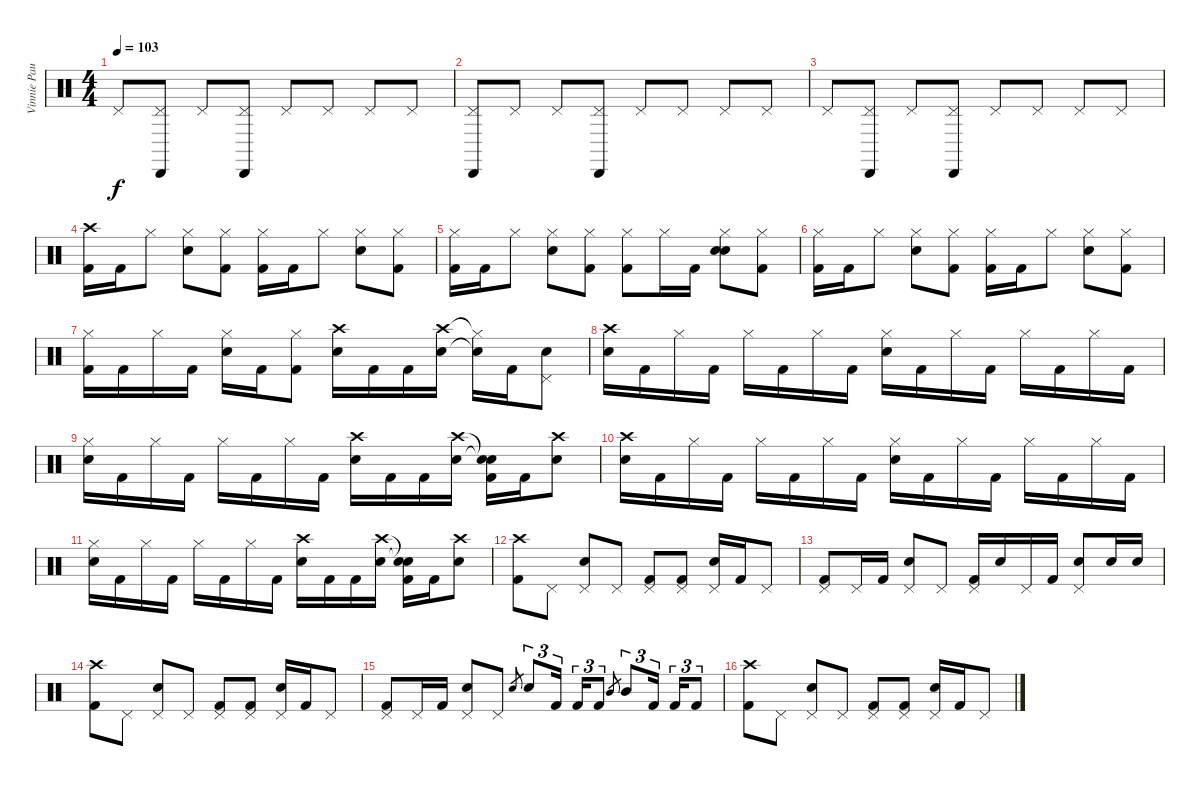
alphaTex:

\track ("Vinnie Paul" "Vinnie Pau") {instrument percussion}
\staff {score}
\articulation defaults
\ts (4 4)
\tempo 103
\clef neutral
\ks c "Pedal Hi-Hat (hit)".8{dy f}
("Pedal Hi-Hat (hit)" "Cabasa (hit)").8 "Pedal Hi-Hat (hit)".8 ("Pedal Hi-Hat (hit)" "Cabasa (hit)").8 "Pedal Hi-Hat (hit)".8 "Pedal Hi-Hat (hit)".8 "Pedal Hi-Hat (hit)".8 "Pedal Hi-Hat (hit)".8 |
("Pedal Hi-Hat (hit)" "Cabasa (hit)").8 "Pedal Hi-Hat (hit)".8 "Pedal Hi-Hat (hit)".8 ("Pedal Hi-Hat (hit)" "Cabasa (hit)").8 "Pedal Hi-Hat (hit)".8 "Pedal Hi-Hat (hit)".8 "Pedal Hi-Hat (hit)".8 "Pedal Hi-Hat (hit)".8 |
"Pedal Hi-Hat (hit)".8 ("Pedal Hi-Hat (hit)" "Cabasa (hit)").8 "Pedal Hi-Hat (hit)".8 ("Pedal Hi-Hat (hit)" "Cabasa (hit)").8 "Pedal Hi-Hat (hit)".8 "Pedal Hi-Hat (hit)".8 "Pedal Hi-Hat (hit)".8 "Pedal Hi-Hat (hit)".8 |
("Crash high (hit)" "Kick (hit) 2").16 "Kick (hit) 2".16 "Hi-Hat (closed)".8 ("Hi-Hat (closed)" "Electric Snare (hit)").8 ("Hi-Hat (closed)" "Kick (hit) 2").8 ("Hi-Hat (closed)" "Kick (hit) 2").16 "Kick (hit) 2".16 "Hi-Hat (closed)".8 ("Hi-Hat (closed)" "Electric Snare (hit)").8 ("Hi-Hat (closed)" "Kick (hit) 2").8 |
("Hi-Hat (closed)" "Kick (hit) 2").16 "Kick (hit) 2".16 "Hi-Hat (closed)".8 ("Hi-Hat (closed)" "Electric Snare (hit)").8 ("Hi-Hat (closed)" "Kick (hit) 2").8 ("Hi-Hat (closed)" "Kick (hit) 2").8 "Hi-Hat (closed)".16 "Kick (hit) 2".16 ("Hi-Hat (closed)" "Electric Snare (hit)" "Snare (hit)").8 ("Hi-Hat (closed)" "Kick (hit) 2").8 |
("Hi-Hat (closed)" "Kick (hit) 2").16 "Kick (hit) 2".16 "Hi-Hat (closed)".8 ("Hi-Hat (closed)" "Electric Snare (hit)").8 ("Hi-Hat (closed)" "Kick (hit) 2").8 ("Hi-Hat (closed)" "Kick (hit) 2").16 "Kick (hit) 2".16 "Hi-Hat (closed)".8 ("Hi-Hat (closed)" "Electric Snare (hit)").8 ("Hi-Hat (closed)" "Kick (hit) 2").8 |
("Hi-Hat (closed)" "Kick (hit) 2").16 "Kick (hit) 2".16 "Hi-Hat (closed)".16 "Kick (hit) 2".16 ("Hi-Hat (closed)" "Electric Snare (hit)").16 "Kick (hit) 2".16 ("Hi-Hat (closed)" "Kick (hit) 2").8 ("Crash high (hit)" "Electric Snare (hit)").16 "Kick (hit) 2".16 "Kick (hit) 2".16 ("Crash high (hit)" "Electric Snare (hit)").16 ("Hi-Hat (closed)"{t} "Snare (hit)"{t}).16 "Kick (hit) 2".16 ("Pedal Hi-Hat (hit)" "Electric Snare (hit)").8 |
("Crash high (hit)" "Electric Snare (hit)").16 "Kick (hit) 2".16 "Hi-Hat (closed)".16 "Kick (hit) 2".16 "Hi-Hat (closed)".16 "Kick (hit) 2".16 "Hi-Hat (closed)".16 "Kick (hit) 2".16 ("Hi-Hat (closed)" "Electric Snare (hit)").16 "Kick (hit) 2".16 "Hi-Hat (closed)".16 "Kick (hit) 2".16 "Hi-Hat (closed)".16 "Kick (hit) 2".16 "Hi-Hat (closed)".16 "Kick (hit) 2".16 |
("Hi-Hat (closed)" "Electric Snare (hit)").16 "Kick (hit) 2".16 "Hi-Hat (closed)".16 "Kick (hit) 2".16 "Hi-Hat (closed)".16 "Kick (hit) 2".16 "Hi-Hat (closed)".16 "Kick (hit) 2".16 ("Crash high (hit)" "Electric Snare (hit)").16 "Kick (hit) 2".16 "Kick (hit) 2".16 ("Crash high (hit)" "Electric Snare (hit)").16 ("Snare (hit)"{t} "Snare (hit)"{t} "Kick (hit) 2").16 "Kick (hit) 2".16 ("Crash high (hit)" "Electric Snare (hit)").8 |
("Crash high (hit)" "Electric Snare (hit)").16 "Kick (hit) 2".16 "Hi-Hat (closed)".16 "Kick (hit) 2".16 "Hi-Hat (closed)".16 "Kick (hit) 2".16 "Hi-Hat (closed)".16 "Kick (hit) 2".16 ("Hi-Hat (closed)" "Electric Snare (hit)").16 "Kick (hit) 2".16 "Hi-Hat (closed)".16 "Kick (hit) 2".16 "Hi-Hat (closed)".16 "Kick (hit) 2".16 "Hi-Hat (closed)".16 "Kick (hit) 2".16 |
("Hi-Hat (closed)" "Electric Snare (hit)").16 "Kick (hit) 2".16 "Hi-Hat (closed)".16 "Kick (hit) 2".16 "Hi-Hat (closed)".16 "Kick (hit) 2".16 "Hi-Hat (closed)".16 "Kick (hit) 2".16 ("Crash high (hit)" "Electric Snare (hit)").16 "Kick (hit) 2".16 "Kick (hit) 2".16 ("Crash high (hit)" "Electric Snare (hit)").16 ("Snare (hit)"{t} "Snare (hit)"{t} "Kick (hit) 2").16 "Kick (hit) 2".16 ("Crash high (hit)" "Electric Snare (hit)").8 |
("Crash high (hit)" "Kick (hit) 2").8 "Pedal Hi-Hat (hit)".8 ("Pedal Hi-Hat (hit)" "Electric Snare (hit)").8 "Pedal Hi-Hat (hit)".8 ("Pedal Hi-Hat (hit)" "Kick (hit) 2").8 ("Pedal Hi-Hat (hit)" "Kick (hit) 2").8 ("Pedal Hi-Hat (hit)" "Electric Snare (hit)").16 "Kick (hit) 2".16 "Pedal Hi-Hat (hit)".8 |
("Pedal Hi-Hat (hit)" "Kick (hit) 2").8 "Pedal Hi-Hat (hit)".16 "Kick (hit) 2".16 ("Pedal Hi-Hat (hit)" "Electric Snare (hit)").8 "Pedal Hi-Hat (hit)".8 ("Pedal Hi-Hat (hit)" "Kick (hit) 2").16 "Electric Snare (hit)".16 "Pedal Hi-Hat (hit)".16 "Kick (hit) 2".16 ("Pedal Hi-Hat (hit)" "Electric Snare (hit)").8 "Electric Snare (hit)".16 "Electric Snare (hit)".16 |
("Crash high (hit)" "Kick (hit) 2").8 "Pedal Hi-Hat (hit)".8 ("Pedal Hi-Hat (hit)" "Electric Snare (hit)").8 "Pedal Hi-Hat (hit)".8 ("Pedal Hi-Hat (hit)" "Kick (hit) 2").8 ("Pedal Hi-Hat (hit)" "Kick (hit) 2").8 ("Pedal Hi-Hat (hit)" "Electric Snare (hit)").16 "Kick (hit) 2".16 "Pedal Hi-Hat (hit)".8 |
("Pedal Hi-Hat (hit)" "Kick (hit) 2").8 "Pedal Hi-Hat (hit)".16 "Kick (hit) 2".16 ("Pedal Hi-Hat (hit)" "Electric Snare (hit)").8 "Pedal Hi-Hat (hit)".8 "Electric Snare (hit)".8{gr} "Electric Snare (hit)".8{tu (3 2)} "Kick (hit) 2".16{tu (3 2)} "Kick (hit) 2".16{tu (3 2)} "Kick (hit) 2".8{tu (3 2)} "Mid Tom (hit)".8{gr} "Mid Tom (hit)".8{tu (3 2)} "Kick (hit) 2".16{tu (3 2)} "Kick (hit) 2".16{tu (3 2)} "Kick (hit) 2".8{tu (3 2)} |
("Crash high (hit)" "Kick (hit) 2").8 "Pedal Hi-Hat (hit)".8 ("Pedal Hi-Hat (hit)" "Electric Snare (hit)").8 "Pedal Hi-Hat (hit)".8 ("Pedal Hi-Hat (hit)" "Kick (hit) 2").8 ("Pedal Hi-Hat (hit)" "Kick (hit) 2").8 ("Pedal Hi-Hat (hit)" "Electric Snare (hit)").16 "Kick (hit) 2".16 "Pedal Hi-Hat (hit)".8
